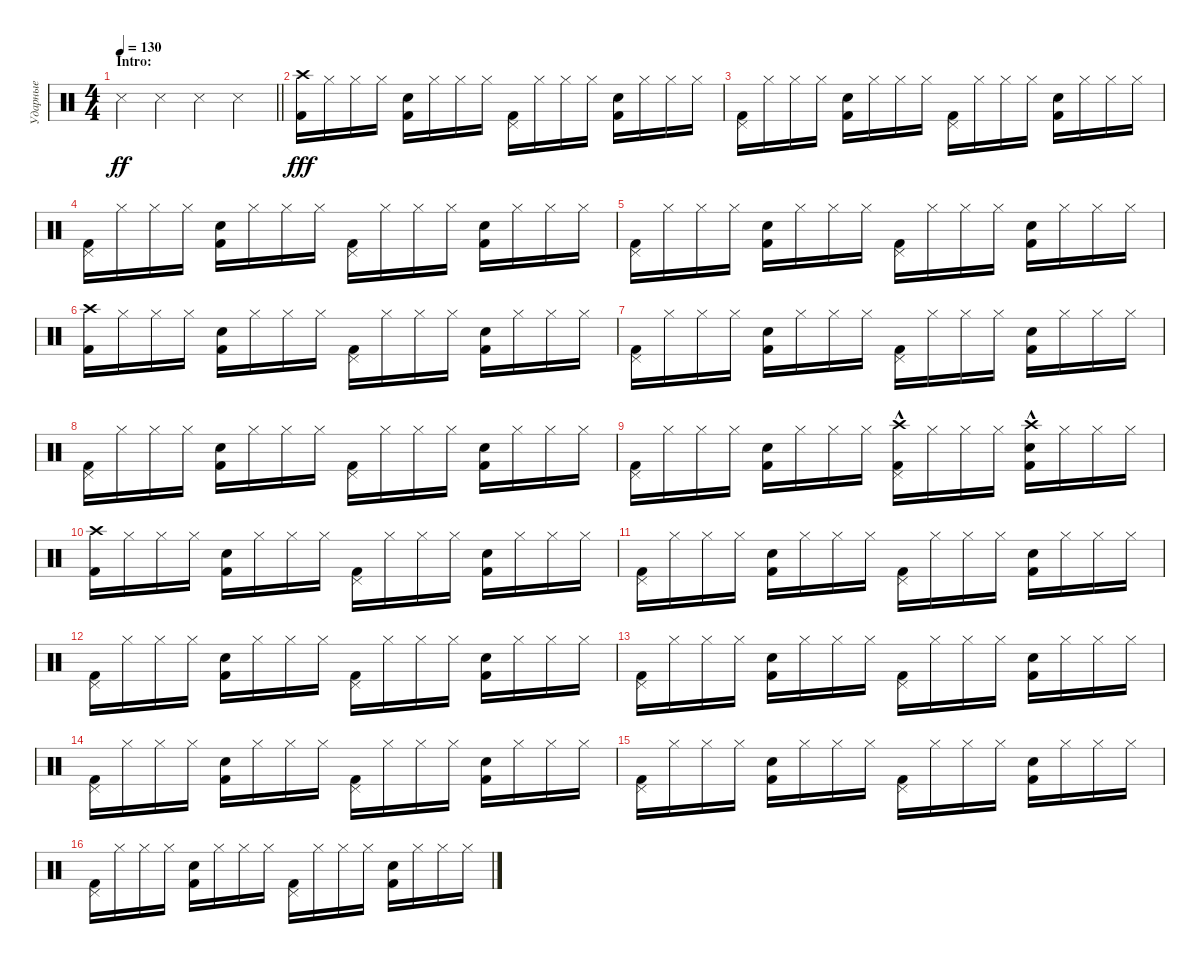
\track ("Ударные" "Ударные") {instrument percussion}
\staff {score}
\articulation defaults
\ts (4 4)
\section ("" "Intro:")
\tempo 130
\clef neutral
\barLineRight lightlight
\ks c "Metronome (hit)".4{dy ff} "Metronome (hit)".4 "Metronome (hit)".4 "Metronome (hit)".4
|
("Crash high (hit)" "Kick (hit) 2").16{dy fff} "Hi-Hat (closed)".16 "Hi-Hat (closed)".16 "Hi-Hat (closed)".16 ("Snare (hit) 2" "Kick (hit) 2").16 "Hi-Hat (closed)".16 "Hi-Hat (closed)".16 "Hi-Hat (closed)".16 ("Pedal Hi-Hat (hit)" "Kick (hit) 2").16 "Hi-Hat (closed)".16 "Hi-Hat (closed)".16 "Hi-Hat (closed)".16 ("Snare (hit) 2" "Kick (hit) 2").16 "Hi-Hat (closed)".16 "Hi-Hat (closed)".16 "Hi-Hat (closed)".16 |
("Pedal Hi-Hat (hit)" "Kick (hit) 2").16 "Hi-Hat (closed)".16 "Hi-Hat (closed)".16 "Hi-Hat (closed)".16 ("Snare (hit) 2" "Kick (hit) 2").16 "Hi-Hat (closed)".16 "Hi-Hat (closed)".16 "Hi-Hat (closed)".16 ("Pedal Hi-Hat (hit)" "Kick (hit) 2").16 "Hi-Hat (closed)".16 "Hi-Hat (closed)".16 "Hi-Hat (closed)".16 ("Snare (hit) 2" "Kick (hit) 2").16 "Hi-Hat (closed)".16 "Hi-Hat (closed)".16 "Hi-Hat (closed)".16 |
("Pedal Hi-Hat (hit)" "Kick (hit) 2").16 "Hi-Hat (closed)".16 "Hi-Hat (closed)".16 "Hi-Hat (closed)".16 ("Snare (hit) 2" "Kick (hit) 2").16 "Hi-Hat (closed)".16 "Hi-Hat (closed)".16 "Hi-Hat (closed)".16 ("Pedal Hi-Hat (hit)" "Kick (hit) 2").16 "Hi-Hat (closed)".16 "Hi-Hat (closed)".16 "Hi-Hat (closed)".16 ("Snare (hit) 2" "Kick (hit) 2").16 "Hi-Hat (closed)".16 "Hi-Hat (closed)".16 "Hi-Hat (closed)".16 |
("Pedal Hi-Hat (hit)" "Kick (hit) 2").16 "Hi-Hat (closed)".16 "Hi-Hat (closed)".16 "Hi-Hat (closed)".16 ("Snare (hit) 2" "Kick (hit) 2").16 "Hi-Hat (closed)".16 "Hi-Hat (closed)".16 "Hi-Hat (closed)".16 ("Pedal Hi-Hat (hit)" "Kick (hit) 2").16 "Hi-Hat (closed)".16 "Hi-Hat (closed)".16 "Hi-Hat (closed)".16 ("Snare (hit) 2" "Kick (hit) 2").16 "Hi-Hat (closed)".16 "Hi-Hat (closed)".16 "Hi-Hat (closed)".16 |
("Crash high (hit)" "Kick (hit) 2").16 "Hi-Hat (closed)".16 "Hi-Hat (closed)".16 "Hi-Hat (closed)".16 ("Snare (hit) 2" "Kick (hit) 2").16 "Hi-Hat (closed)".16 "Hi-Hat (closed)".16 "Hi-Hat (closed)".16 ("Pedal Hi-Hat (hit)" "Kick (hit) 2").16 "Hi-Hat (closed)".16 "Hi-Hat (closed)".16 "Hi-Hat (closed)".16 ("Snare (hit) 2" "Kick (hit) 2").16 "Hi-Hat (closed)".16 "Hi-Hat (closed)".16 "Hi-Hat (closed)".16 |
("Pedal Hi-Hat (hit)" "Kick (hit) 2").16 "Hi-Hat (closed)".16 "Hi-Hat (closed)".16 "Hi-Hat (closed)".16 ("Snare (hit) 2" "Kick (hit) 2").16 "Hi-Hat (closed)".16 "Hi-Hat (closed)".16 "Hi-Hat (closed)".16 ("Pedal Hi-Hat (hit)" "Kick (hit) 2").16 "Hi-Hat (closed)".16 "Hi-Hat (closed)".16 "Hi-Hat (closed)".16 ("Snare (hit) 2" "Kick (hit) 2").16 "Hi-Hat (closed)".16 "Hi-Hat (closed)".16 "Hi-Hat (closed)".16 |
("Pedal Hi-Hat (hit)" "Kick (hit) 2").16 "Hi-Hat (closed)".16 "Hi-Hat (closed)".16 "Hi-Hat (closed)".16 ("Snare (hit) 2" "Kick (hit) 2").16 "Hi-Hat (closed)".16 "Hi-Hat (closed)".16 "Hi-Hat (closed)".16 ("Pedal Hi-Hat (hit)" "Kick (hit) 2").16 "Hi-Hat (closed)".16 "Hi-Hat (closed)".16 "Hi-Hat (closed)".16 ("Snare (hit) 2" "Kick (hit) 2").16 "Hi-Hat (closed)".16 "Hi-Hat (closed)".16 "Hi-Hat (closed)".16 |
("Pedal Hi-Hat (hit)" "Kick (hit) 2").16 "Hi-Hat (closed)".16 "Hi-Hat (closed)".16 "Hi-Hat (closed)".16 ("Snare (hit) 2" "Kick (hit) 2").16 "Hi-Hat (closed)".16 "Hi-Hat (closed)".16 "Hi-Hat (closed)".16 ("Pedal Hi-Hat (hit)" "Crash high (hit)"{hac} "Kick (hit) 2").16 "Hi-Hat (closed)".16 "Hi-Hat (closed)".16 "Hi-Hat (closed)".16 ("Crash high (hit)"{hac} "Snare (hit) 2" "Kick (hit) 2").16 "Hi-Hat (closed)".16 "Hi-Hat (closed)".16 "Hi-Hat (closed)".16 |
("Crash high (hit)" "Kick (hit) 2").16 "Hi-Hat (closed)".16 "Hi-Hat (closed)".16 "Hi-Hat (closed)".16 ("Snare (hit) 2" "Kick (hit) 2").16 "Hi-Hat (closed)".16 "Hi-Hat (closed)".16 "Hi-Hat (closed)".16 ("Pedal Hi-Hat (hit)" "Kick (hit) 2").16 "Hi-Hat (closed)".16 "Hi-Hat (closed)".16 "Hi-Hat (closed)".16 ("Snare (hit) 2" "Kick (hit) 2").16 "Hi-Hat (closed)".16 "Hi-Hat (closed)".16 "Hi-Hat (closed)".16 |
("Pedal Hi-Hat (hit)" "Kick (hit) 2").16 "Hi-Hat (closed)".16 "Hi-Hat (closed)".16 "Hi-Hat (closed)".16 ("Snare (hit) 2" "Kick (hit) 2").16 "Hi-Hat (closed)".16 "Hi-Hat (closed)".16 "Hi-Hat (closed)".16 ("Pedal Hi-Hat (hit)" "Kick (hit) 2").16 "Hi-Hat (closed)".16 "Hi-Hat (closed)".16 "Hi-Hat (closed)".16 ("Snare (hit) 2" "Kick (hit) 2").16 "Hi-Hat (closed)".16 "Hi-Hat (closed)".16 "Hi-Hat (closed)".16 |
("Pedal Hi-Hat (hit)" "Kick (hit) 2").16 "Hi-Hat (closed)".16 "Hi-Hat (closed)".16 "Hi-Hat (closed)".16 ("Snare (hit) 2" "Kick (hit) 2").16 "Hi-Hat (closed)".16 "Hi-Hat (closed)".16 "Hi-Hat (closed)".16 ("Pedal Hi-Hat (hit)" "Kick (hit) 2").16 "Hi-Hat (closed)".16 "Hi-Hat (closed)".16 "Hi-Hat (closed)".16 ("Snare (hit) 2" "Kick (hit) 2").16 "Hi-Hat (closed)".16 "Hi-Hat (closed)".16 "Hi-Hat (closed)".16 |
("Pedal Hi-Hat (hit)" "Kick (hit) 2").16 "Hi-Hat (closed)".16 "Hi-Hat (closed)".16 "Hi-Hat (closed)".16 ("Snare (hit) 2" "Kick (hit) 2").16 "Hi-Hat (closed)".16 "Hi-Hat (closed)".16 "Hi-Hat (closed)".16 ("Pedal Hi-Hat (hit)" "Kick (hit) 2").16 "Hi-Hat (closed)".16 "Hi-Hat (closed)".16 "Hi-Hat (closed)".16 ("Snare (hit) 2" "Kick (hit) 2").16 "Hi-Hat (closed)".16 "Hi-Hat (closed)".16 "Hi-Hat (closed)".16 |
("Pedal Hi-Hat (hit)" "Kick (hit) 2").16 "Hi-Hat (closed)".16 "Hi-Hat (closed)".16 "Hi-Hat (closed)".16 ("Snare (hit) 2" "Kick (hit) 2").16 "Hi-Hat (closed)".16 "Hi-Hat (closed)".16 "Hi-Hat (closed)".16 ("Pedal Hi-Hat (hit)" "Kick (hit) 2").16 "Hi-Hat (closed)".16 "Hi-Hat (closed)".16 "Hi-Hat (closed)".16 ("Snare (hit) 2" "Kick (hit) 2").16 "Hi-Hat (closed)".16 "Hi-Hat (closed)".16 "Hi-Hat (closed)".16 |
("Pedal Hi-Hat (hit)" "Kick (hit) 2").16 "Hi-Hat (closed)".16 "Hi-Hat (closed)".16 "Hi-Hat (closed)".16 ("Snare (hit) 2" "Kick (hit) 2").16 "Hi-Hat (closed)".16 "Hi-Hat (closed)".16 "Hi-Hat (closed)".16 ("Pedal Hi-Hat (hit)" "Kick (hit) 2").16 "Hi-Hat (closed)".16 "Hi-Hat (closed)".16 "Hi-Hat (closed)".16 ("Snare (hit) 2" "Kick (hit) 2").16 "Hi-Hat (closed)".16 "Hi-Hat (closed)".16 "Hi-Hat (closed)".16 |
("Pedal Hi-Hat (hit)" "Kick (hit) 2").16 "Hi-Hat (closed)".16 "Hi-Hat (closed)".16 "Hi-Hat (closed)".16 ("Snare (hit) 2" "Kick (hit) 2").16 "Hi-Hat (closed)".16 "Hi-Hat (closed)".16 "Hi-Hat (closed)".16 ("Pedal Hi-Hat (hit)" "Kick (hit) 2").16 "Hi-Hat (closed)".16 "Hi-Hat (closed)".16 "Hi-Hat (closed)".16 ("Snare (hit) 2" "Kick (hit) 2").16 "Hi-Hat (closed)".16 "Hi-Hat (closed)".16 "Hi-Hat (closed)".16
